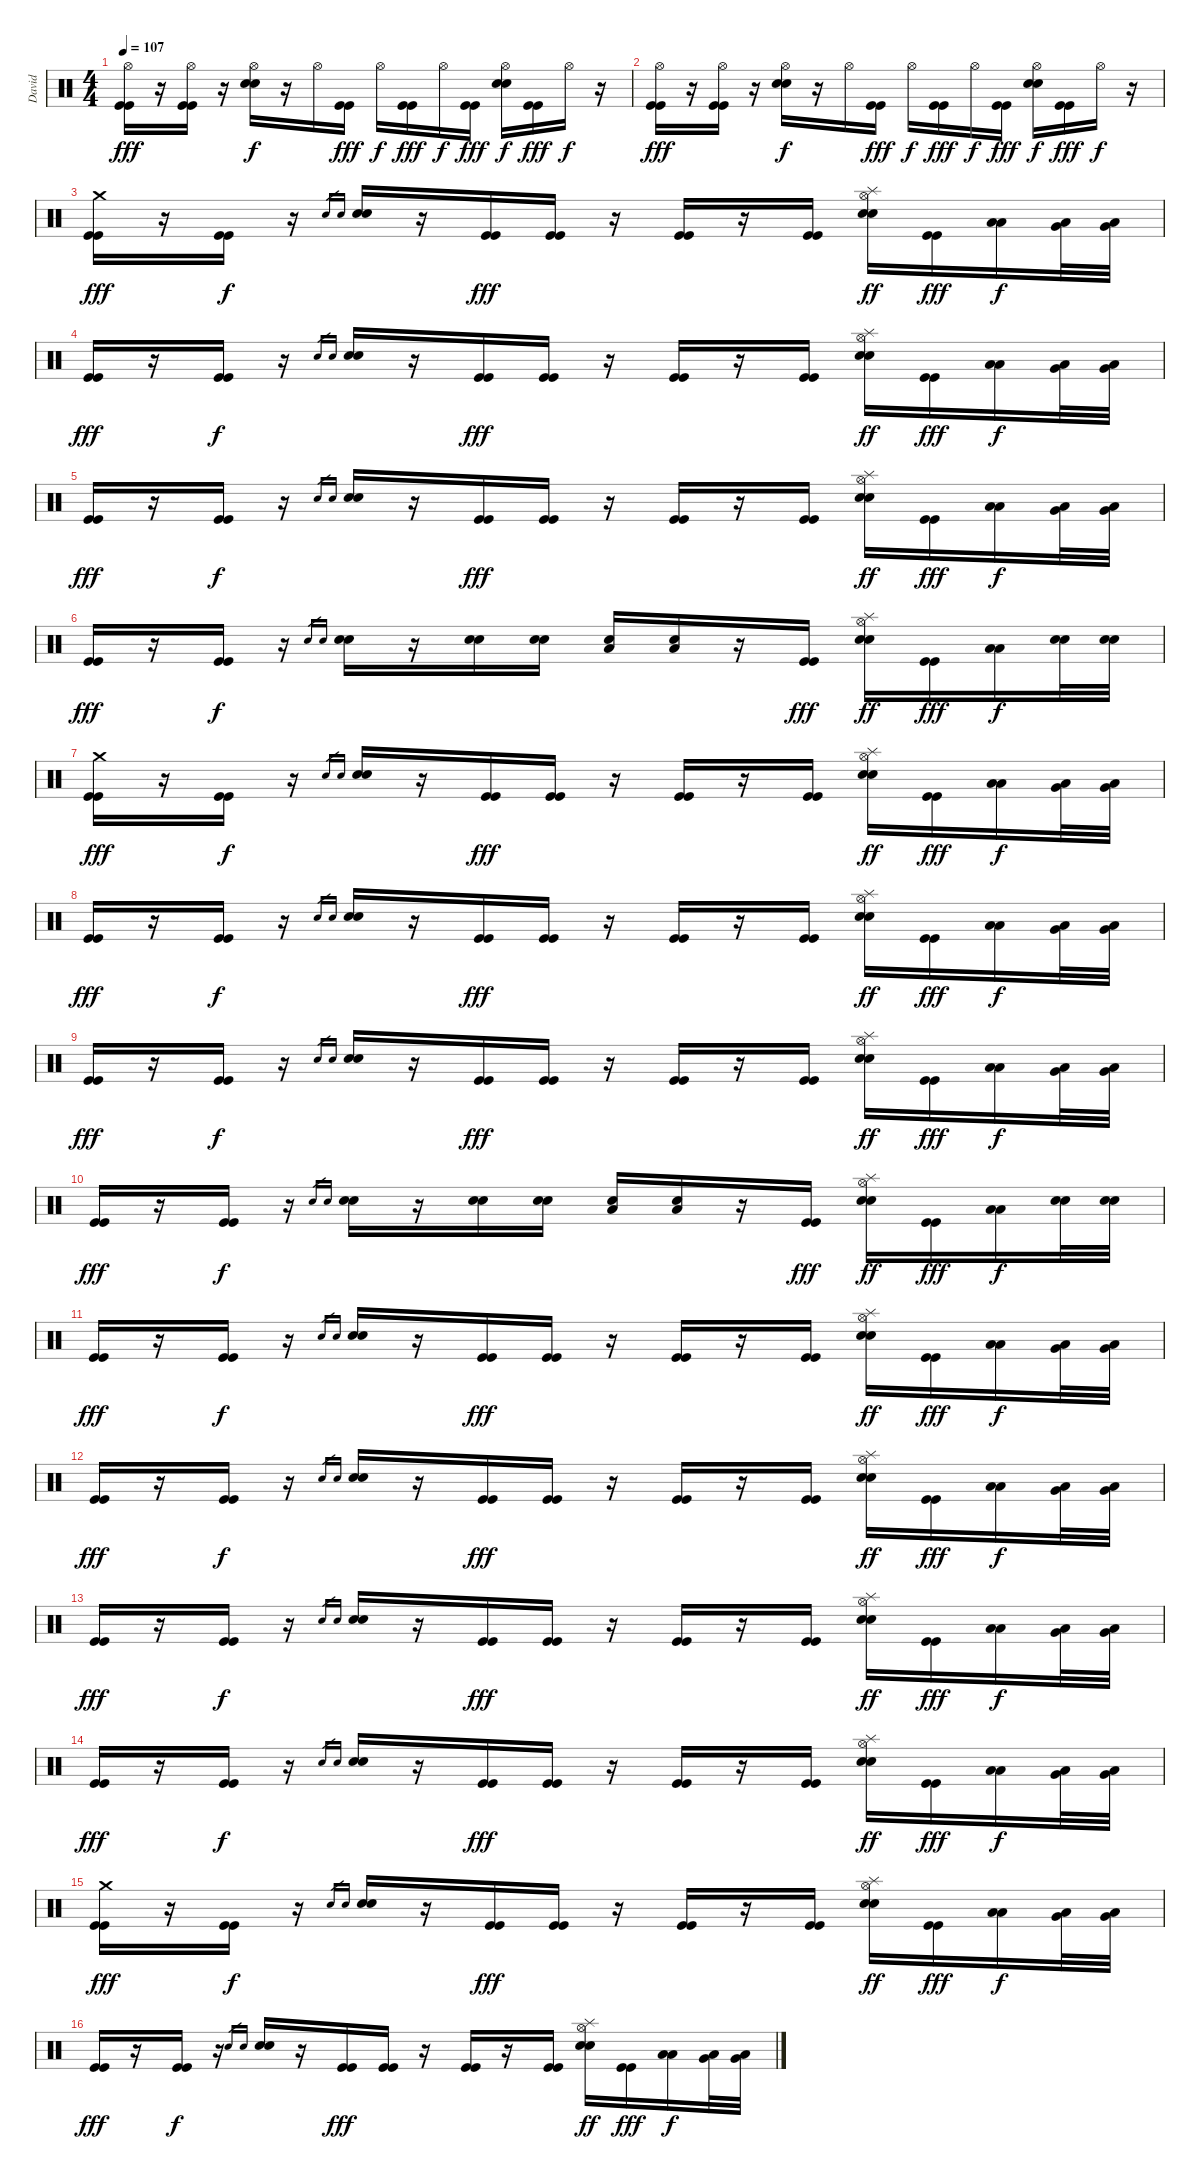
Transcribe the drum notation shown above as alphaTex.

\track ("David" "David") {instrument percussion}
\staff {score}
\articulation defaults
\ts (4 4)
\tempo 107
\clef neutral
\ks c
("Hi-Hat (open)" "Kick (hit)" "Kick (hit)").16{dy fff} r.16 ("Hi-Hat (open)" "Kick (hit)" "Kick (hit)").16 r.16 ("Hi-Hat (open)" "Electric Snare (hit)" "Electric Snare (hit)").16{dy f} r.16 "Hi-Hat (open)".16 ("Kick (hit)" "Kick (hit)").16{dy fff} "Hi-Hat (open)".16{dy f} ("Kick (hit)" "Kick (hit)").16{dy fff} "Hi-Hat (open)".16{dy f} ("Kick (hit)" "Kick (hit)").16{dy fff} ("Hi-Hat (open)" "Electric Snare (hit)" "Electric Snare (hit)").16{dy f} ("Kick (hit)" "Kick (hit)").16{dy fff} "Hi-Hat (open)".16{dy f} r.16 |
("Hi-Hat (open)" "Kick (hit)" "Kick (hit)").16{dy fff} r.16 ("Hi-Hat (open)" "Kick (hit)" "Kick (hit)").16 r.16 ("Hi-Hat (open)" "Electric Snare (hit)" "Electric Snare (hit)").16{dy f} r.16 "Hi-Hat (open)".16 ("Kick (hit)" "Kick (hit)").16{dy fff} "Hi-Hat (open)".16{dy f} ("Kick (hit)" "Kick (hit)").16{dy fff} "Hi-Hat (open)".16{dy f} ("Kick (hit)" "Kick (hit)").16{dy fff} ("Hi-Hat (open)" "Electric Snare (hit)" "Electric Snare (hit)").16{dy f} ("Kick (hit)" "Kick (hit)").16{dy fff} "Hi-Hat (open)".16{dy f} r.16 |
("Crash medium (hit)" "Kick (hit)" "Kick (hit)").16{dy fff} r.16 ("Kick (hit)" "Kick (hit)").16{dy f} r.16 "Electric Snare (hit)".16{gr} "Electric Snare (hit)".16{gr} ("Electric Snare (hit)" "Electric Snare (hit)").16 r.16 ("Kick (hit)" "Kick (hit)").16{dy fff} ("Kick (hit)" "Kick (hit)").16 r.16 ("Kick (hit)" "Kick (hit)").16 r.16 ("Kick (hit)" "Kick (hit)").16 ("Splash (hit)" "Hi-Hat (open)" "Electric Snare (hit)" "Electric Snare (hit)").16{dy ff} ("Kick (hit)" "Kick (hit)").16{dy fff} ("Low Floor Tom (hit)" "Low Floor Tom (hit)").16{dy f} ("Low Floor Tom (hit)" "Very Low Tom (hit)").32 ("Very Low Tom (hit)" "Low Tom (hit)").32 |
("Kick (hit)" "Kick (hit)").16{dy fff} r.16 ("Kick (hit)" "Kick (hit)").16{dy f} r.16 "Electric Snare (hit)".16{gr} "Electric Snare (hit)".16{gr} ("Electric Snare (hit)" "Electric Snare (hit)").16 r.16 ("Kick (hit)" "Kick (hit)").16{dy fff} ("Kick (hit)" "Kick (hit)").16 r.16 ("Kick (hit)" "Kick (hit)").16 r.16 ("Kick (hit)" "Kick (hit)").16 ("Splash (hit)" "Hi-Hat (open)" "Electric Snare (hit)" "Electric Snare (hit)").16{dy ff} ("Kick (hit)" "Kick (hit)").16{dy fff} ("Low Floor Tom (hit)" "Low Floor Tom (hit)").16{dy f} ("Low Floor Tom (hit)" "Very Low Tom (hit)").32 ("Very Low Tom (hit)" "Low Tom (hit)").32 |
("Kick (hit)" "Kick (hit)").16{dy fff} r.16 ("Kick (hit)" "Kick (hit)").16{dy f} r.16 "Electric Snare (hit)".16{gr} "Electric Snare (hit)".16{gr} ("Electric Snare (hit)" "Electric Snare (hit)").16 r.16 ("Kick (hit)" "Kick (hit)").16{dy fff} ("Kick (hit)" "Kick (hit)").16 r.16 ("Kick (hit)" "Kick (hit)").16 r.16 ("Kick (hit)" "Kick (hit)").16 ("Splash (hit)" "Hi-Hat (open)" "Electric Snare (hit)" "Electric Snare (hit)").16{dy ff} ("Kick (hit)" "Kick (hit)").16{dy fff} ("Low Floor Tom (hit)" "Low Floor Tom (hit)").16{dy f} ("Low Floor Tom (hit)" "Very Low Tom (hit)").32 ("Very Low Tom (hit)" "Low Tom (hit)").32 |
("Kick (hit)" "Kick (hit)").16{dy fff} r.16 ("Kick (hit)" "Kick (hit)").16{dy f} r.16 "Electric Snare (hit)".16{gr} "Electric Snare (hit)".16{gr} ("Electric Snare (hit)" "Electric Snare (hit)").16 r.16 ("Electric Snare (hit)" "Electric Snare (hit)").16 ("Electric Snare (hit)" "Electric Snare (hit)").16 ("Low Floor Tom (hit)" "Electric Snare (hit)").16 ("Low Floor Tom (hit)" "Electric Snare (hit)").16 r.16 ("Kick (hit)" "Kick (hit)").16{dy fff} ("Splash (hit)" "Hi-Hat (open)" "Electric Snare (hit)" "Electric Snare (hit)").16{dy ff} ("Kick (hit)" "Kick (hit)").16{dy fff} ("Low Floor Tom (hit)" "Low Floor Tom (hit)").16{dy f} ("Electric Snare (hit)" "Electric Snare (hit)").32 ("Electric Snare (hit)" "Electric Snare (hit)").32 |
("Crash medium (hit)" "Kick (hit)" "Kick (hit)").16{dy fff} r.16 ("Kick (hit)" "Kick (hit)").16{dy f} r.16 "Electric Snare (hit)".16{gr} "Electric Snare (hit)".16{gr} ("Electric Snare (hit)" "Electric Snare (hit)").16 r.16 ("Kick (hit)" "Kick (hit)").16{dy fff} ("Kick (hit)" "Kick (hit)").16 r.16 ("Kick (hit)" "Kick (hit)").16 r.16 ("Kick (hit)" "Kick (hit)").16 ("Splash (hit)" "Hi-Hat (open)" "Electric Snare (hit)" "Electric Snare (hit)").16{dy ff} ("Kick (hit)" "Kick (hit)").16{dy fff} ("Low Floor Tom (hit)" "Low Floor Tom (hit)").16{dy f} ("Low Floor Tom (hit)" "Very Low Tom (hit)").32 ("Very Low Tom (hit)" "Low Tom (hit)").32 |
("Kick (hit)" "Kick (hit)").16{dy fff} r.16 ("Kick (hit)" "Kick (hit)").16{dy f} r.16 "Electric Snare (hit)".16{gr} "Electric Snare (hit)".16{gr} ("Electric Snare (hit)" "Electric Snare (hit)").16 r.16 ("Kick (hit)" "Kick (hit)").16{dy fff} ("Kick (hit)" "Kick (hit)").16 r.16 ("Kick (hit)" "Kick (hit)").16 r.16 ("Kick (hit)" "Kick (hit)").16 ("Splash (hit)" "Hi-Hat (open)" "Electric Snare (hit)" "Electric Snare (hit)").16{dy ff} ("Kick (hit)" "Kick (hit)").16{dy fff} ("Low Floor Tom (hit)" "Low Floor Tom (hit)").16{dy f} ("Low Floor Tom (hit)" "Very Low Tom (hit)").32 ("Very Low Tom (hit)" "Low Tom (hit)").32 |
("Kick (hit)" "Kick (hit)").16{dy fff} r.16 ("Kick (hit)" "Kick (hit)").16{dy f} r.16 "Electric Snare (hit)".16{gr} "Electric Snare (hit)".16{gr} ("Electric Snare (hit)" "Electric Snare (hit)").16 r.16 ("Kick (hit)" "Kick (hit)").16{dy fff} ("Kick (hit)" "Kick (hit)").16 r.16 ("Kick (hit)" "Kick (hit)").16 r.16 ("Kick (hit)" "Kick (hit)").16 ("Splash (hit)" "Hi-Hat (open)" "Electric Snare (hit)" "Electric Snare (hit)").16{dy ff} ("Kick (hit)" "Kick (hit)").16{dy fff} ("Low Floor Tom (hit)" "Low Floor Tom (hit)").16{dy f} ("Low Floor Tom (hit)" "Very Low Tom (hit)").32 ("Very Low Tom (hit)" "Low Tom (hit)").32 |
("Kick (hit)" "Kick (hit)").16{dy fff} r.16 ("Kick (hit)" "Kick (hit)").16{dy f} r.16 "Electric Snare (hit)".16{gr} "Electric Snare (hit)".16{gr} ("Electric Snare (hit)" "Electric Snare (hit)").16 r.16 ("Electric Snare (hit)" "Electric Snare (hit)").16 ("Electric Snare (hit)" "Electric Snare (hit)").16 ("Low Floor Tom (hit)" "Electric Snare (hit)").16 ("Low Floor Tom (hit)" "Electric Snare (hit)").16 r.16 ("Kick (hit)" "Kick (hit)").16{dy fff} ("Splash (hit)" "Hi-Hat (open)" "Electric Snare (hit)" "Electric Snare (hit)").16{dy ff} ("Kick (hit)" "Kick (hit)").16{dy fff} ("Low Floor Tom (hit)" "Low Floor Tom (hit)").16{dy f} ("Electric Snare (hit)" "Electric Snare (hit)").32 ("Electric Snare (hit)" "Electric Snare (hit)").32 |
("Kick (hit)" "Kick (hit)").16{dy fff} r.16 ("Kick (hit)" "Kick (hit)").16{dy f} r.16 "Electric Snare (hit)".16{gr} "Electric Snare (hit)".16{gr} ("Electric Snare (hit)" "Electric Snare (hit)").16 r.16 ("Kick (hit)" "Kick (hit)").16{dy fff} ("Kick (hit)" "Kick (hit)").16 r.16 ("Kick (hit)" "Kick (hit)").16 r.16 ("Kick (hit)" "Kick (hit)").16 ("Splash (hit)" "Hi-Hat (open)" "Electric Snare (hit)" "Electric Snare (hit)").16{dy ff} ("Kick (hit)" "Kick (hit)").16{dy fff} ("Low Floor Tom (hit)" "Low Floor Tom (hit)").16{dy f} ("Low Floor Tom (hit)" "Very Low Tom (hit)").32 ("Very Low Tom (hit)" "Low Tom (hit)").32 |
("Kick (hit)" "Kick (hit)").16{dy fff} r.16 ("Kick (hit)" "Kick (hit)").16{dy f} r.16 "Electric Snare (hit)".16{gr} "Electric Snare (hit)".16{gr} ("Electric Snare (hit)" "Electric Snare (hit)").16 r.16 ("Kick (hit)" "Kick (hit)").16{dy fff} ("Kick (hit)" "Kick (hit)").16 r.16 ("Kick (hit)" "Kick (hit)").16 r.16 ("Kick (hit)" "Kick (hit)").16 ("Splash (hit)" "Hi-Hat (open)" "Electric Snare (hit)" "Electric Snare (hit)").16{dy ff} ("Kick (hit)" "Kick (hit)").16{dy fff} ("Low Floor Tom (hit)" "Low Floor Tom (hit)").16{dy f} ("Low Floor Tom (hit)" "Very Low Tom (hit)").32 ("Very Low Tom (hit)" "Low Tom (hit)").32 |
("Kick (hit)" "Kick (hit)").16{dy fff} r.16 ("Kick (hit)" "Kick (hit)").16{dy f} r.16 "Electric Snare (hit)".16{gr} "Electric Snare (hit)".16{gr} ("Electric Snare (hit)" "Electric Snare (hit)").16 r.16 ("Kick (hit)" "Kick (hit)").16{dy fff} ("Kick (hit)" "Kick (hit)").16 r.16 ("Kick (hit)" "Kick (hit)").16 r.16 ("Kick (hit)" "Kick (hit)").16 ("Splash (hit)" "Hi-Hat (open)" "Electric Snare (hit)" "Electric Snare (hit)").16{dy ff} ("Kick (hit)" "Kick (hit)").16{dy fff} ("Low Floor Tom (hit)" "Low Floor Tom (hit)").16{dy f} ("Low Floor Tom (hit)" "Very Low Tom (hit)").32 ("Very Low Tom (hit)" "Low Tom (hit)").32 |
("Kick (hit)" "Kick (hit)").16{dy fff} r.16 ("Kick (hit)" "Kick (hit)").16{dy f} r.16 "Electric Snare (hit)".16{gr} "Electric Snare (hit)".16{gr} ("Electric Snare (hit)" "Electric Snare (hit)").16 r.16 ("Kick (hit)" "Kick (hit)").16{dy fff} ("Kick (hit)" "Kick (hit)").16 r.16 ("Kick (hit)" "Kick (hit)").16 r.16 ("Kick (hit)" "Kick (hit)").16 ("Splash (hit)" "Hi-Hat (open)" "Electric Snare (hit)" "Electric Snare (hit)").16{dy ff} ("Kick (hit)" "Kick (hit)").16{dy fff} ("Low Floor Tom (hit)" "Low Floor Tom (hit)").16{dy f} ("Low Floor Tom (hit)" "Very Low Tom (hit)").32 ("Very Low Tom (hit)" "Low Tom (hit)").32 |
("Crash medium (hit)" "Kick (hit)" "Kick (hit)").16{dy fff} r.16 ("Kick (hit)" "Kick (hit)").16{dy f} r.16 "Electric Snare (hit)".16{gr} "Electric Snare (hit)".16{gr} ("Electric Snare (hit)" "Electric Snare (hit)").16 r.16 ("Kick (hit)" "Kick (hit)").16{dy fff} ("Kick (hit)" "Kick (hit)").16 r.16 ("Kick (hit)" "Kick (hit)").16 r.16 ("Kick (hit)" "Kick (hit)").16 ("Splash (hit)" "Hi-Hat (open)" "Electric Snare (hit)" "Electric Snare (hit)").16{dy ff} ("Kick (hit)" "Kick (hit)").16{dy fff} ("Low Floor Tom (hit)" "Low Floor Tom (hit)").16{dy f} ("Low Floor Tom (hit)" "Very Low Tom (hit)").32 ("Very Low Tom (hit)" "Low Tom (hit)").32 |
("Kick (hit)" "Kick (hit)").16{dy fff} r.16 ("Kick (hit)" "Kick (hit)").16{dy f} r.16 "Electric Snare (hit)".16{gr} "Electric Snare (hit)".16{gr} ("Electric Snare (hit)" "Electric Snare (hit)").16 r.16 ("Kick (hit)" "Kick (hit)").16{dy fff} ("Kick (hit)" "Kick (hit)").16 r.16 ("Kick (hit)" "Kick (hit)").16 r.16 ("Kick (hit)" "Kick (hit)").16 ("Splash (hit)" "Hi-Hat (open)" "Electric Snare (hit)" "Electric Snare (hit)").16{dy ff} ("Kick (hit)" "Kick (hit)").16{dy fff} ("Low Floor Tom (hit)" "Low Floor Tom (hit)").16{dy f} ("Low Floor Tom (hit)" "Very Low Tom (hit)").32 ("Very Low Tom (hit)" "Low Tom (hit)").32
